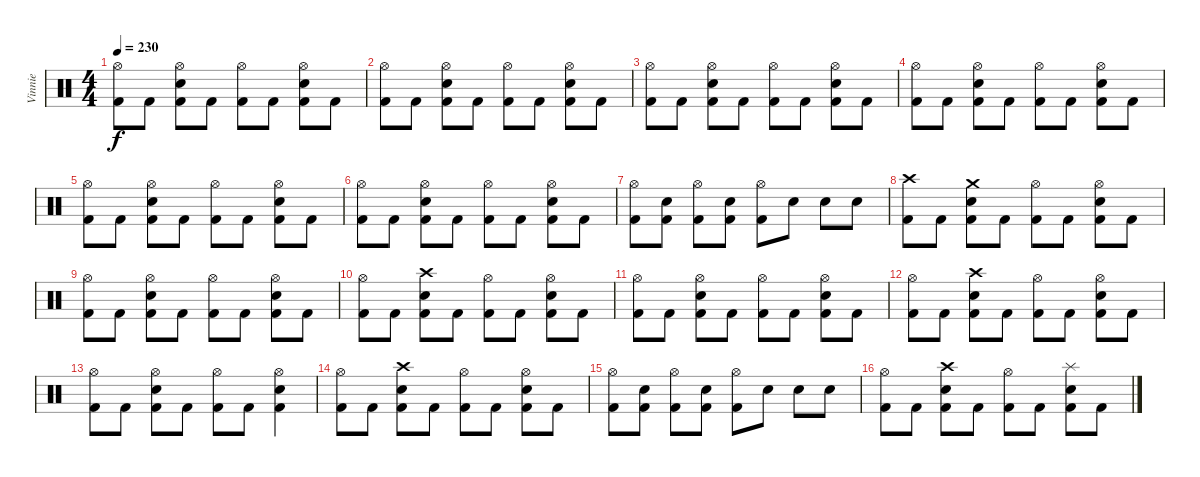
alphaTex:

\track ("Vinnie" "Vinnie") {instrument percussion}
\staff {score}
\articulation defaults
\ts (4 4)
\tempo 230
\clef neutral
\ks c
("Hi-Hat (open)" "Kick (hit) 2").8{dy f} "Kick (hit) 2".8 ("Hi-Hat (open)" "Snare (hit) 2" "Kick (hit) 2").8 "Kick (hit) 2".8 ("Hi-Hat (open)" "Kick (hit) 2").8 "Kick (hit) 2".8 ("Hi-Hat (open)" "Snare (hit) 2" "Kick (hit) 2").8 "Kick (hit) 2".8 |
("Hi-Hat (open)" "Kick (hit) 2").8 "Kick (hit) 2".8 ("Hi-Hat (open)" "Snare (hit) 2" "Kick (hit) 2").8 "Kick (hit) 2".8 ("Hi-Hat (open)" "Kick (hit) 2").8 "Kick (hit) 2".8 ("Hi-Hat (open)" "Snare (hit) 2" "Kick (hit) 2").8 "Kick (hit) 2".8 |
("Hi-Hat (open)" "Kick (hit) 2").8 "Kick (hit) 2".8 ("Hi-Hat (open)" "Snare (hit) 2" "Kick (hit) 2").8 "Kick (hit) 2".8 ("Hi-Hat (open)" "Kick (hit) 2").8 "Kick (hit) 2".8 ("Hi-Hat (open)" "Snare (hit) 2" "Kick (hit) 2").8 "Kick (hit) 2".8 |
("Hi-Hat (open)" "Kick (hit) 2").8 "Kick (hit) 2".8 ("Hi-Hat (open)" "Snare (hit) 2" "Kick (hit) 2").8 "Kick (hit) 2".8 ("Hi-Hat (open)" "Kick (hit) 2").8 "Kick (hit) 2".8 ("Hi-Hat (open)" "Snare (hit) 2" "Kick (hit) 2").8 "Kick (hit) 2".8 |
("Hi-Hat (open)" "Kick (hit) 2").8 "Kick (hit) 2".8 ("Hi-Hat (open)" "Snare (hit) 2" "Kick (hit) 2").8 "Kick (hit) 2".8 ("Hi-Hat (open)" "Kick (hit) 2").8 "Kick (hit) 2".8 ("Hi-Hat (open)" "Snare (hit) 2" "Kick (hit) 2").8 "Kick (hit) 2".8 |
("Hi-Hat (open)" "Kick (hit) 2").8 "Kick (hit) 2".8 ("Hi-Hat (open)" "Snare (hit) 2" "Kick (hit) 2").8 "Kick (hit) 2".8 ("Hi-Hat (open)" "Kick (hit) 2").8 "Kick (hit) 2".8 ("Hi-Hat (open)" "Snare (hit) 2" "Kick (hit) 2").8 "Kick (hit) 2".8 |
("Hi-Hat (open)" "Kick (hit) 2").8 ("Snare (hit) 2" "Kick (hit) 2").8 ("Hi-Hat (open)" "Kick (hit) 2").8 ("Snare (hit) 2" "Kick (hit) 2").8 ("Hi-Hat (open)" "Kick (hit) 2").8 "Snare (hit) 2".8 "Snare (hit) 2".8 "Snare (hit) 2".8 |
("Crash high (hit)" "Kick (hit) 2").8 "Kick (hit) 2".8 ("Crash medium (hit)" "Snare (hit) 2" "Kick (hit) 2").8 "Kick (hit) 2".8 ("Hi-Hat (open)" "Kick (hit) 2").8 "Kick (hit) 2".8 ("Hi-Hat (open)" "Snare (hit) 2" "Kick (hit) 2").8 "Kick (hit) 2".8 |
("Hi-Hat (open)" "Kick (hit) 2").8 "Kick (hit) 2".8 ("Hi-Hat (open)" "Snare (hit) 2" "Kick (hit) 2").8 "Kick (hit) 2".8 ("Hi-Hat (open)" "Kick (hit) 2").8 "Kick (hit) 2".8 ("Hi-Hat (open)" "Snare (hit) 2" "Kick (hit) 2").8 "Kick (hit) 2".8 |
("Hi-Hat (open)" "Kick (hit) 2").8 "Kick (hit) 2".8 ("Crash high (hit)" "Snare (hit) 2" "Kick (hit) 2").8 "Kick (hit) 2".8 ("Hi-Hat (open)" "Kick (hit) 2").8 "Kick (hit) 2".8 ("Hi-Hat (open)" "Snare (hit) 2" "Kick (hit) 2").8 "Kick (hit) 2".8 |
("Hi-Hat (open)" "Kick (hit) 2").8 "Kick (hit) 2".8 ("Hi-Hat (open)" "Snare (hit) 2" "Kick (hit) 2").8 "Kick (hit) 2".8 ("Hi-Hat (open)" "Kick (hit) 2").8 "Kick (hit) 2".8 ("Hi-Hat (open)" "Snare (hit) 2" "Kick (hit) 2").8 "Kick (hit) 2".8 |
("Hi-Hat (open)" "Kick (hit) 2").8 "Kick (hit) 2".8 ("Crash high (hit)" "Snare (hit) 2" "Kick (hit) 2").8 "Kick (hit) 2".8 ("Hi-Hat (open)" "Kick (hit) 2").8 "Kick (hit) 2".8 ("Hi-Hat (open)" "Snare (hit) 2" "Kick (hit) 2").8 "Kick (hit) 2".8 |
("Hi-Hat (open)" "Kick (hit) 2").8 "Kick (hit) 2".8 ("Hi-Hat (open)" "Snare (hit) 2" "Kick (hit) 2").8 "Kick (hit) 2".8 ("Hi-Hat (open)" "Kick (hit) 2").8 "Kick (hit) 2".8 ("Hi-Hat (open)" "Snare (hit) 2" "Kick (hit) 2").4 |
("Hi-Hat (open)" "Kick (hit) 2").8 "Kick (hit) 2".8 ("Crash high (hit)" "Snare (hit) 2" "Kick (hit) 2").8 "Kick (hit) 2".8 ("Hi-Hat (open)" "Kick (hit) 2").8 "Kick (hit) 2".8 ("Hi-Hat (open)" "Snare (hit) 2" "Kick (hit) 2").8 "Kick (hit) 2".8 |
("Hi-Hat (open)" "Kick (hit) 2").8 ("Snare (hit) 2" "Kick (hit) 2").8 ("Hi-Hat (open)" "Kick (hit) 2").8 ("Snare (hit) 2" "Kick (hit) 2").8 ("Hi-Hat (open)" "Kick (hit) 2").8 "Snare (hit) 2".8 "Snare (hit) 2".8 "Snare (hit) 2".8 |
("Hi-Hat (open)" "Kick (hit) 2").8 "Kick (hit) 2".8 ("Crash high (hit)" "Snare (hit) 2" "Kick (hit) 2").8 "Kick (hit) 2".8 ("Hi-Hat (open)" "Kick (hit) 2").8 "Kick (hit) 2".8 ("Splash (hit)" "Snare (hit) 2" "Kick (hit) 2").8 "Kick (hit) 2".8
